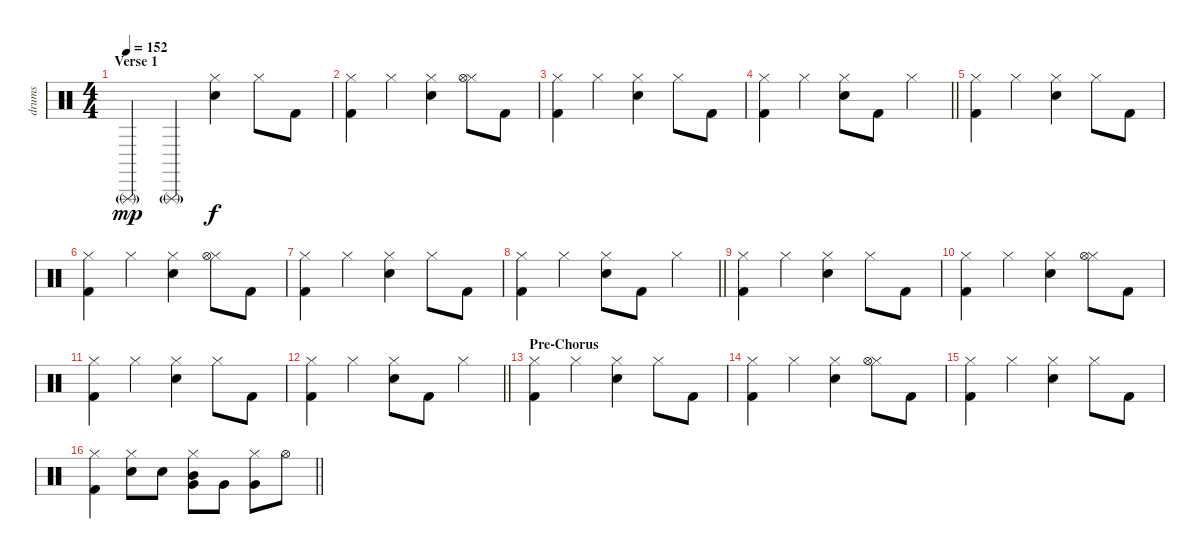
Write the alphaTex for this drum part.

\track ("drums" "drums") {instrument percussion}
\staff {score}
\articulation defaults
\ts (4 4)
\section ("" "Verse 1")
\tempo 152
\clef neutral
\ks c "Triangle (rnute)"{g}.4{dy mp} "Triangle (rnute)"{g}.4
("Hi-Hat (closed)" "Electric Snare (hit)").4{dy f} "Hi-Hat (closed)".8 "Kick (hit) 2".8 |
("Hi-Hat (closed)" "Kick (hit) 2").4 "Hi-Hat (closed)".4 ("Hi-Hat (closed)" "Electric Snare (hit)").4 ("Hi-Hat (closed)" "Hi-Hat (open)").8 "Kick (hit) 2".8 |
("Hi-Hat (closed)" "Kick (hit) 2").4 "Hi-Hat (closed)".4 ("Hi-Hat (closed)" "Electric Snare (hit)").4 "Hi-Hat (closed)".8 "Kick (hit) 2".8 |
\barLineRight lightlight
("Hi-Hat (closed)" "Kick (hit) 2").4 "Hi-Hat (closed)".4 ("Hi-Hat (closed)" "Electric Snare (hit)").8 "Kick (hit) 2".8 "Hi-Hat (closed)".4 |
("Hi-Hat (closed)" "Kick (hit) 2").4 "Hi-Hat (closed)".4 ("Hi-Hat (closed)" "Electric Snare (hit)").4 "Hi-Hat (closed)".8 "Kick (hit) 2".8 |
("Hi-Hat (closed)" "Kick (hit) 2").4 "Hi-Hat (closed)".4 ("Hi-Hat (closed)" "Electric Snare (hit)").4 ("Hi-Hat (closed)" "Hi-Hat (open)").8 "Kick (hit) 2".8 |
("Hi-Hat (closed)" "Kick (hit) 2").4 "Hi-Hat (closed)".4 ("Hi-Hat (closed)" "Electric Snare (hit)").4 "Hi-Hat (closed)".8 "Kick (hit) 2".8 |
\barLineRight lightlight
("Hi-Hat (closed)" "Kick (hit) 2").4 "Hi-Hat (closed)".4 ("Hi-Hat (closed)" "Electric Snare (hit)").8 "Kick (hit) 2".8 "Hi-Hat (closed)".4 |
("Hi-Hat (closed)" "Kick (hit) 2").4 "Hi-Hat (closed)".4 ("Hi-Hat (closed)" "Electric Snare (hit)").4 "Hi-Hat (closed)".8 "Kick (hit) 2".8 |
("Hi-Hat (closed)" "Kick (hit) 2").4 "Hi-Hat (closed)".4 ("Hi-Hat (closed)" "Electric Snare (hit)").4 ("Hi-Hat (closed)" "Hi-Hat (open)").8 "Kick (hit) 2".8 |
("Hi-Hat (closed)" "Kick (hit) 2").4 "Hi-Hat (closed)".4 ("Hi-Hat (closed)" "Electric Snare (hit)").4 "Hi-Hat (closed)".8 "Kick (hit) 2".8 |
\barLineRight lightlight
("Hi-Hat (closed)" "Kick (hit) 2").4 "Hi-Hat (closed)".4 ("Hi-Hat (closed)" "Electric Snare (hit)").8 "Kick (hit) 2".8 "Hi-Hat (closed)".4 |
\section ("" "Pre-Chorus")
("Hi-Hat (closed)" "Kick (hit) 2").4 "Hi-Hat (closed)".4 ("Hi-Hat (closed)" "Electric Snare (hit)").4 "Hi-Hat (closed)".8 "Kick (hit) 2".8 |
("Hi-Hat (closed)" "Kick (hit) 2").4 "Hi-Hat (closed)".4 ("Hi-Hat (closed)" "Electric Snare (hit)").4 ("Hi-Hat (closed)" "Hi-Hat (open)").8 "Kick (hit) 2".8 |
("Hi-Hat (closed)" "Kick (hit) 2").4 "Hi-Hat (closed)".4 ("Hi-Hat (closed)" "Electric Snare (hit)").4 "Hi-Hat (closed)".8 "Kick (hit) 2".8 |
\barLineRight lightlight
("Hi-Hat (closed)" "Kick (hit) 2").4 ("Hi-Hat (closed)" "Electric Snare (hit)").8 "Electric Snare (hit)".8 ("Hi-Hat (closed)" "Very Low Tom (hit)" "Mid Tom (hit)").8 "Very Low Tom (hit)".8 ("Hi-Hat (closed)" "Very Low Tom (hit)").8 "Hi-Hat (open)".8
